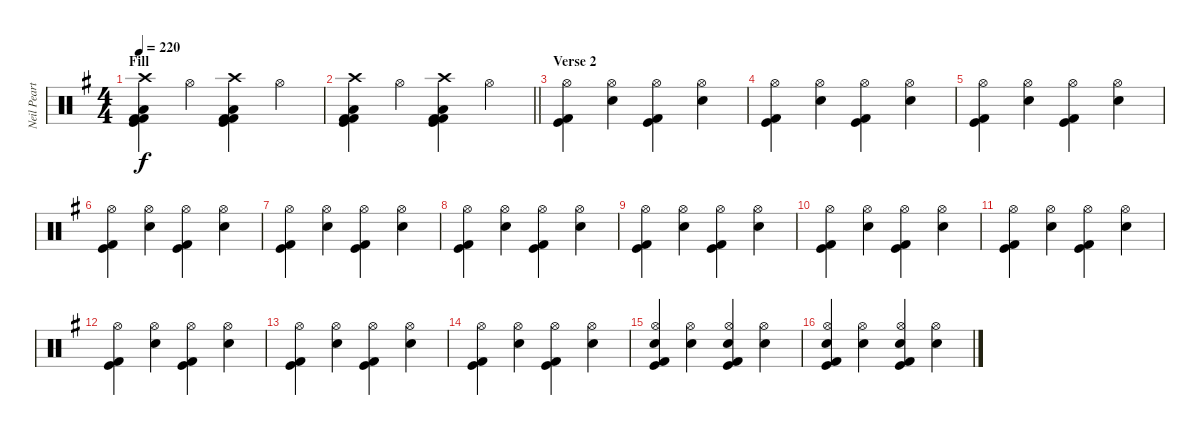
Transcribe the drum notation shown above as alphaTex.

\track ("Neil Peart" "Neil Peart") {instrument percussion}
\staff {score}
\articulation defaults
\ts (4 4)
\section ("" "Fill")
\tempo 220
\clef neutral
\ks g
("Crash high (hit)" "Kick (hit) 2" "Low Floor Tom (hit)" "Kick (hit)" "Kick (hit) 2").4{dy f} "Hi-Hat (open)".4 ("Crash high (hit)" "Kick (hit) 2" "Low Floor Tom (hit)" "Kick (hit)" "Kick (hit) 2").4 "Hi-Hat (open)".4 |
\barLineRight lightlight
("Crash high (hit)" "Kick (hit) 2" "Low Floor Tom (hit)" "Kick (hit)" "Kick (hit) 2").4 "Hi-Hat (open)".4 ("Crash high (hit)" "Kick (hit) 2" "Low Floor Tom (hit)" "Kick (hit)" "Kick (hit) 2").4 "Hi-Hat (open)".4 |
\section ("" "Verse 2")
("Hi-Hat (open)" "Kick (hit) 2" "Kick (hit)").4{balance 8} ("Hi-Hat (open)" "Snare (hit) 2").4 ("Hi-Hat (open)" "Kick (hit) 2" "Kick (hit)").4 ("Hi-Hat (open)" "Snare (hit) 2").4 |
("Hi-Hat (open)" "Kick (hit) 2" "Kick (hit)").4 ("Hi-Hat (open)" "Snare (hit) 2").4 ("Hi-Hat (open)" "Kick (hit) 2" "Kick (hit)").4 ("Hi-Hat (open)" "Snare (hit) 2").4 |
("Hi-Hat (open)" "Kick (hit) 2" "Kick (hit)").4 ("Hi-Hat (open)" "Snare (hit) 2").4 ("Hi-Hat (open)" "Kick (hit) 2" "Kick (hit)").4 ("Hi-Hat (open)" "Snare (hit) 2").4 |
("Hi-Hat (open)" "Kick (hit) 2" "Kick (hit)").4 ("Hi-Hat (open)" "Snare (hit) 2").4 ("Hi-Hat (open)" "Kick (hit) 2" "Kick (hit)").4 ("Hi-Hat (open)" "Snare (hit) 2").4 |
("Hi-Hat (open)" "Kick (hit) 2" "Kick (hit)").4{balance 8} ("Hi-Hat (open)" "Snare (hit) 2").4 ("Hi-Hat (open)" "Kick (hit) 2" "Kick (hit)").4 ("Hi-Hat (open)" "Snare (hit) 2").4 |
("Hi-Hat (open)" "Kick (hit) 2" "Kick (hit)").4 ("Hi-Hat (open)" "Snare (hit) 2").4 ("Hi-Hat (open)" "Kick (hit) 2" "Kick (hit)").4 ("Hi-Hat (open)" "Snare (hit) 2").4 |
("Hi-Hat (open)" "Kick (hit) 2" "Kick (hit)").4 ("Hi-Hat (open)" "Snare (hit) 2").4 ("Hi-Hat (open)" "Kick (hit) 2" "Kick (hit)").4 ("Hi-Hat (open)" "Snare (hit) 2").4 |
("Hi-Hat (open)" "Kick (hit) 2" "Kick (hit)").4 ("Hi-Hat (open)" "Snare (hit) 2").4 ("Hi-Hat (open)" "Kick (hit) 2" "Kick (hit)").4 ("Hi-Hat (open)" "Snare (hit) 2").4 |
("Hi-Hat (open)" "Kick (hit) 2" "Kick (hit)").4 ("Hi-Hat (open)" "Snare (hit) 2").4 ("Hi-Hat (open)" "Kick (hit) 2" "Kick (hit)").4 ("Hi-Hat (open)" "Snare (hit) 2").4 |
("Hi-Hat (open)" "Kick (hit) 2" "Kick (hit)").4 ("Hi-Hat (open)" "Snare (hit) 2").4 ("Hi-Hat (open)" "Kick (hit) 2" "Kick (hit)").4 ("Hi-Hat (open)" "Snare (hit) 2").4 |
("Hi-Hat (open)" "Kick (hit) 2" "Kick (hit)").4 ("Hi-Hat (open)" "Snare (hit) 2").4 ("Hi-Hat (open)" "Kick (hit) 2" "Kick (hit)").4 ("Hi-Hat (open)" "Snare (hit) 2").4 |
("Hi-Hat (open)" "Kick (hit) 2" "Kick (hit)").4 ("Hi-Hat (open)" "Snare (hit) 2").4 ("Hi-Hat (open)" "Kick (hit) 2" "Kick (hit)").4 ("Hi-Hat (open)" "Snare (hit) 2").4 |
("Snare (hit) 2" "Hi-Hat (open)" "Kick (hit) 2" "Kick (hit)").4 ("Hi-Hat (open)" "Snare (hit) 2").4 ("Snare (hit) 2" "Hi-Hat (open)" "Kick (hit) 2" "Kick (hit)").4 ("Hi-Hat (open)" "Snare (hit) 2").4 |
("Snare (hit) 2" "Hi-Hat (open)" "Kick (hit) 2" "Kick (hit)").4 ("Hi-Hat (open)" "Snare (hit) 2").4 ("Snare (hit) 2" "Hi-Hat (open)" "Kick (hit) 2" "Kick (hit)").4 ("Hi-Hat (open)" "Snare (hit) 2").4
